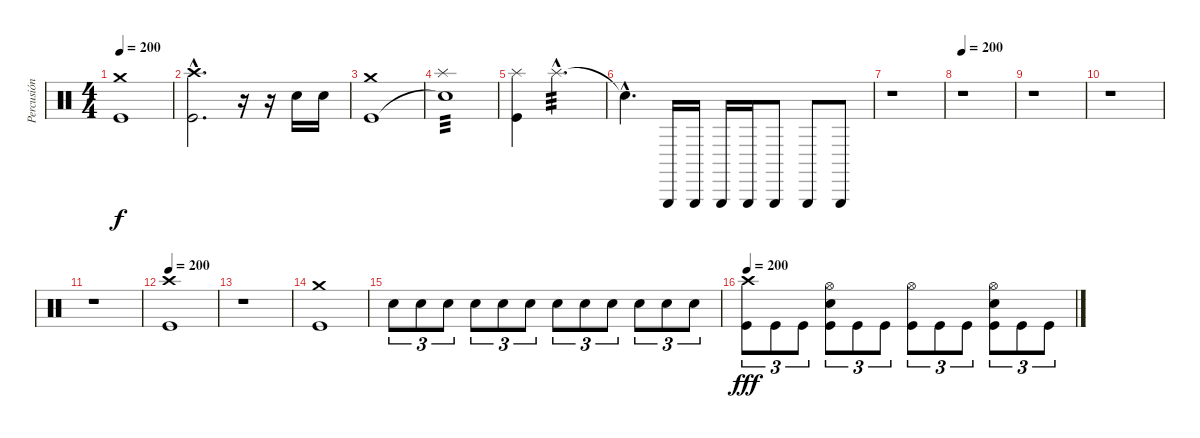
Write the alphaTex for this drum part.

\track ("Percusión" "Percusión") {instrument percussion}
\staff {score}
\articulation defaults
\ts (4 4)
\tempo 200
\clef neutral
\ks c
("Crash medium (hit)" "Kick (hit)").1{dy f} |
("Crash high (hit)"{hac} "Kick (hit)"{hac}).2{d} r.16 r.16 "Electric Snare (hit)".16 "Electric Snare (hit)".16 |
("Crash medium (hit)" "Kick (hit)").1 |
("Splash (hit)" "Snare (hit)"{t}).1{tp 3} |
("Splash (hit)" "Kick (hit)").4 "Splash (hit)"{hac}.2{d tp 3} |
"Snare (hit)"{hac t}.4{d} "Triangle (hit)".16 "Triangle (hit)".16 "Triangle (hit)".16 "Triangle (hit)".16 "Triangle (hit)".8 "Triangle (hit)".8 "Triangle (hit)".8 |
r.1 |
\tempo 200
r.1 |
r.1 |
r.1 |
r.1 |
\tempo 200
("Crash high (hit)" "Kick (hit)").1 |
r.1 |
("Crash medium (hit)" "Kick (hit)").1 |
"Electric Snare (hit)".8{tu (3 2)} "Electric Snare (hit)".8{tu (3 2)} "Electric Snare (hit)".8{tu (3 2)} "Electric Snare (hit)".8{tu (3 2)} "Electric Snare (hit)".8{tu (3 2)} "Electric Snare (hit)".8{tu (3 2)} "Electric Snare (hit)".8{tu (3 2)} "Electric Snare (hit)".8{tu (3 2)} "Electric Snare (hit)".8{tu (3 2)} "Electric Snare (hit)".8{tu (3 2)} "Electric Snare (hit)".8{tu (3 2)} "Electric Snare (hit)".8{tu (3 2)} |
\tempo 200
("Crash high (hit)" "Kick (hit)").8{tu (3 2) dy fff} "Kick (hit)".8{tu (3 2)} "Kick (hit)".8{tu (3 2)} ("Hi-Hat (open)" "Electric Snare (hit)" "Kick (hit)").8{tu (3 2)} "Kick (hit)".8{tu (3 2)} "Kick (hit)".8{tu (3 2)} ("Hi-Hat (open)" "Kick (hit)").8{tu (3 2)} "Kick (hit)".8{tu (3 2)} "Kick (hit)".8{tu (3 2)} ("Hi-Hat (open)" "Electric Snare (hit)" "Kick (hit)").8{tu (3 2)} "Kick (hit)".8{tu (3 2)} "Kick (hit)".8{tu (3 2)}
